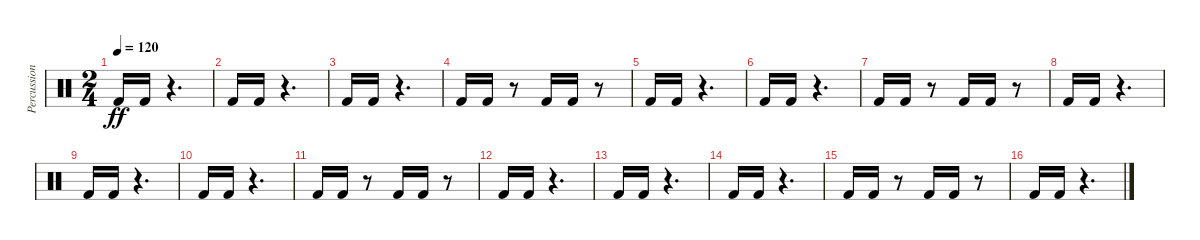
\track ("Percussion" "Percussion") {instrument percussion}
\staff {score}
\articulation defaults
\ts (2 4)
\tempo 120
\clef neutral
\ks c "Kick (hit) 2".16{dy ff} "Kick (hit) 2".16
r.4{d} |
"Kick (hit) 2".16 "Kick (hit) 2".16 r.4{d} |
"Kick (hit) 2".16 "Kick (hit) 2".16 r.4{d} |
"Kick (hit) 2".16 "Kick (hit) 2".16 r.8 "Kick (hit) 2".16 "Kick (hit) 2".16 r.8 |
"Kick (hit) 2".16 "Kick (hit) 2".16 r.4{d} |
"Kick (hit) 2".16 "Kick (hit) 2".16 r.4{d} |
"Kick (hit) 2".16 "Kick (hit) 2".16 r.8 "Kick (hit) 2".16 "Kick (hit) 2".16 r.8 |
"Kick (hit) 2".16 "Kick (hit) 2".16 r.4{d} |
"Kick (hit) 2".16 "Kick (hit) 2".16 r.4{d} |
"Kick (hit) 2".16 "Kick (hit) 2".16 r.4{d} |
"Kick (hit) 2".16 "Kick (hit) 2".16 r.8 "Kick (hit) 2".16 "Kick (hit) 2".16 r.8 |
"Kick (hit) 2".16 "Kick (hit) 2".16 r.4{d} |
"Kick (hit) 2".16 "Kick (hit) 2".16 r.4{d} |
"Kick (hit) 2".16 "Kick (hit) 2".16 r.4{d} |
"Kick (hit) 2".16 "Kick (hit) 2".16 r.8 "Kick (hit) 2".16 "Kick (hit) 2".16 r.8 |
"Kick (hit) 2".16 "Kick (hit) 2".16 r.4{d}
